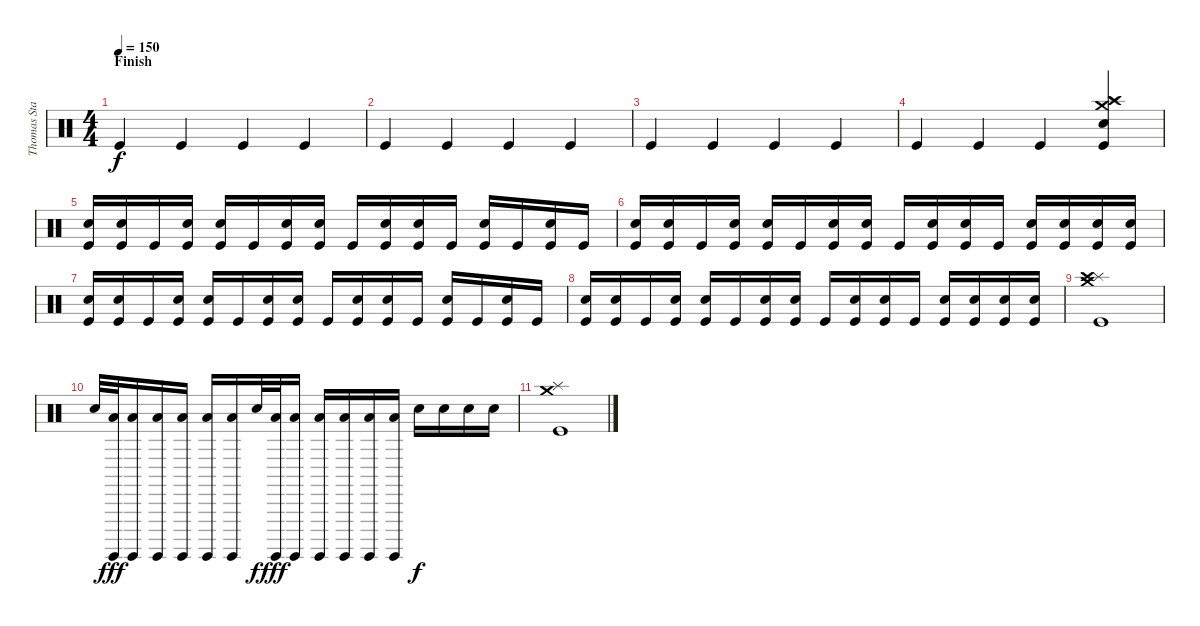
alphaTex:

\track ("Thomas Stauch" "Thomas Sta") {instrument percussion}
\staff {score}
\articulation defaults
\ts (4 4)
\section ("" "Finish")
\tempo 150
\clef neutral
\ks c "Kick (hit)".4{dy f} "Kick (hit)".4 "Kick (hit)".4 "Kick (hit)".4
|
"Kick (hit)".4 "Kick (hit)".4 "Kick (hit)".4 "Kick (hit)".4 |
"Kick (hit)".4 "Kick (hit)".4 "Kick (hit)".4 "Kick (hit)".4 |
"Kick (hit)".4 "Kick (hit)".4 "Kick (hit)".4 ("Crash medium (hit)" "Splash (hit)" "Crash high (hit)" "Electric Snare (hit)" "Kick (hit)").4 |
("Electric Snare (hit)" "Kick (hit)").16 ("Electric Snare (hit)" "Kick (hit)").16 "Kick (hit)".16 ("Electric Snare (hit)" "Kick (hit)").16 ("Electric Snare (hit)" "Kick (hit)").16 "Kick (hit)".16 ("Electric Snare (hit)" "Kick (hit)").16 ("Electric Snare (hit)" "Kick (hit)").16 "Kick (hit)".16 ("Electric Snare (hit)" "Kick (hit)").16 ("Electric Snare (hit)" "Kick (hit)").16 "Kick (hit)".16 ("Electric Snare (hit)" "Kick (hit)").16 "Kick (hit)".16 ("Electric Snare (hit)" "Kick (hit)").16 "Kick (hit)".16 |
("Electric Snare (hit)" "Kick (hit)").16 ("Electric Snare (hit)" "Kick (hit)").16 "Kick (hit)".16 ("Electric Snare (hit)" "Kick (hit)").16 ("Electric Snare (hit)" "Kick (hit)").16 "Kick (hit)".16 ("Electric Snare (hit)" "Kick (hit)").16 ("Electric Snare (hit)" "Kick (hit)").16 "Kick (hit)".16 ("Electric Snare (hit)" "Kick (hit)").16 ("Electric Snare (hit)" "Kick (hit)").16 "Kick (hit)".16 ("Electric Snare (hit)" "Kick (hit)").16 ("Electric Snare (hit)" "Kick (hit)").16 ("Electric Snare (hit)" "Kick (hit)").16 ("Electric Snare (hit)" "Kick (hit)").16 |
("Electric Snare (hit)" "Kick (hit)").16 ("Electric Snare (hit)" "Kick (hit)").16 "Kick (hit)".16 ("Electric Snare (hit)" "Kick (hit)").16 ("Electric Snare (hit)" "Kick (hit)").16 "Kick (hit)".16 ("Electric Snare (hit)" "Kick (hit)").16 ("Electric Snare (hit)" "Kick (hit)").16 "Kick (hit)".16 ("Electric Snare (hit)" "Kick (hit)").16 ("Electric Snare (hit)" "Kick (hit)").16 "Kick (hit)".16 ("Electric Snare (hit)" "Kick (hit)").16 "Kick (hit)".16 ("Electric Snare (hit)" "Kick (hit)").16 "Kick (hit)".16 |
("Electric Snare (hit)" "Kick (hit)").16 ("Electric Snare (hit)" "Kick (hit)").16 "Kick (hit)".16 ("Electric Snare (hit)" "Kick (hit)").16 ("Electric Snare (hit)" "Kick (hit)").16 "Kick (hit)".16 ("Electric Snare (hit)" "Kick (hit)").16 ("Electric Snare (hit)" "Kick (hit)").16 "Kick (hit)".16 ("Electric Snare (hit)" "Kick (hit)").16 ("Electric Snare (hit)" "Kick (hit)").16 "Kick (hit)".16 ("Electric Snare (hit)" "Kick (hit)").16 ("Electric Snare (hit)" "Kick (hit)").16 ("Electric Snare (hit)" "Kick (hit)").16 ("Electric Snare (hit)" "Kick (hit)").16 |
("Crash medium (hit)" "Splash (hit)" "Crash high (hit)" "Kick (hit)").1 |
"Electric Snare (hit)".32 ("Surdo (hit)" "Low Floor Tom (hit)").32{dy fff} ("Surdo (hit)" "Low Floor Tom (hit)").16 ("Surdo (hit)" "Low Floor Tom (hit)").16 ("Surdo (hit)" "Low Floor Tom (hit)").16 ("Surdo (hit)" "Low Floor Tom (hit)").16 ("Surdo (hit)" "Low Floor Tom (hit)").16 "Electric Snare (hit)".32{dy f} ("Surdo (hit)" "Low Floor Tom (hit)").32{dy fff} ("Surdo (hit)" "Low Floor Tom (hit)").16 ("Surdo (hit)" "Low Floor Tom (hit)").16 ("Surdo (hit)" "Low Floor Tom (hit)").16 ("Surdo (hit)" "Low Floor Tom (hit)").16 ("Surdo (hit)" "Low Floor Tom (hit)").16 "Electric Snare (hit)".16{dy f} "Electric Snare (hit)".16 "Electric Snare (hit)".16 "Electric Snare (hit)".16 |
("Crash medium (hit)" "Splash (hit)" "Kick (hit)").1
